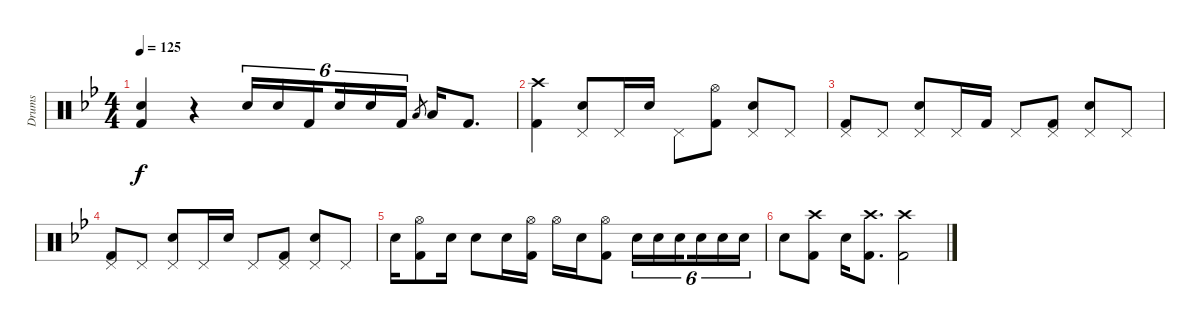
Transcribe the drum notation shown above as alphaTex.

\track ("Drums" "Drums") {instrument percussion}
\staff {score}
\articulation defaults
\ts (4 4)
\tempo 125
\clef neutral
\ks bb
("Electric Snare (hit)" "Kick (hit) 2").4{dy f} r.4 "Electric Snare (hit)".16{tu (6 4)} "Electric Snare (hit)".16{tu (6 4)} "Kick (hit) 2".16{tu (6 4) beam splitsecondary} "Electric Snare (hit)".16{tu (6 4)} "Electric Snare (hit)".16{tu (6 4)} "Kick (hit) 2".16{tu (6 4)} "Low Tom (hit)".8{gr} "Low Tom (hit)".16 "Kick (hit) 2".8{d} |
("Crash high (hit)" "Kick (hit) 2").4 ("Pedal Hi-Hat (hit)" "Electric Snare (hit)").8 "Pedal Hi-Hat (hit)".16 "Electric Snare (hit)".16 "Pedal Hi-Hat (hit)".8 ("Hi-Hat (open)" "Kick (hit) 2").8 ("Pedal Hi-Hat (hit)" "Electric Snare (hit)").8 "Pedal Hi-Hat (hit)".8 |
("Pedal Hi-Hat (hit)" "Kick (hit) 2").8 "Pedal Hi-Hat (hit)".8 ("Pedal Hi-Hat (hit)" "Electric Snare (hit)").8 "Pedal Hi-Hat (hit)".16 "Kick (hit) 2".16 "Pedal Hi-Hat (hit)".8 ("Pedal Hi-Hat (hit)" "Kick (hit) 2").8 ("Pedal Hi-Hat (hit)" "Electric Snare (hit)").8 "Pedal Hi-Hat (hit)".8 |
("Pedal Hi-Hat (hit)" "Kick (hit) 2").8 "Pedal Hi-Hat (hit)".8 ("Pedal Hi-Hat (hit)" "Electric Snare (hit)").8 "Pedal Hi-Hat (hit)".16 "Electric Snare (hit)".16 "Pedal Hi-Hat (hit)".8 ("Pedal Hi-Hat (hit)" "Kick (hit) 2").8 ("Pedal Hi-Hat (hit)" "Electric Snare (hit)").8 "Pedal Hi-Hat (hit)".8 |
"Electric Snare (hit)".16 ("Hi-Hat (open)" "Kick (hit) 2").8 "Electric Snare (hit)".16 "Electric Snare (hit)".8 "Electric Snare (hit)".16 ("Hi-Hat (open)" "Kick (hit) 2").16 "Hi-Hat (open)".16 "Electric Snare (hit)".16 ("Hi-Hat (open)" "Kick (hit) 2").8 "Electric Snare (hit)".16{tu (6 4)} "Electric Snare (hit)".16{tu (6 4)} "Electric Snare (hit)".16{tu (6 4) beam splitsecondary} "Electric Snare (hit)".16{tu (6 4)} "Electric Snare (hit)".16{tu (6 4)} "Electric Snare (hit)".16{tu (6 4)} |
"Electric Snare (hit)".8 ("Crash high (hit)" "Kick (hit) 2").8 "Electric Snare (hit)".16 ("Crash high (hit)" "Kick (hit) 2").8{d} ("Crash high (hit)" "Kick (hit) 2").2
